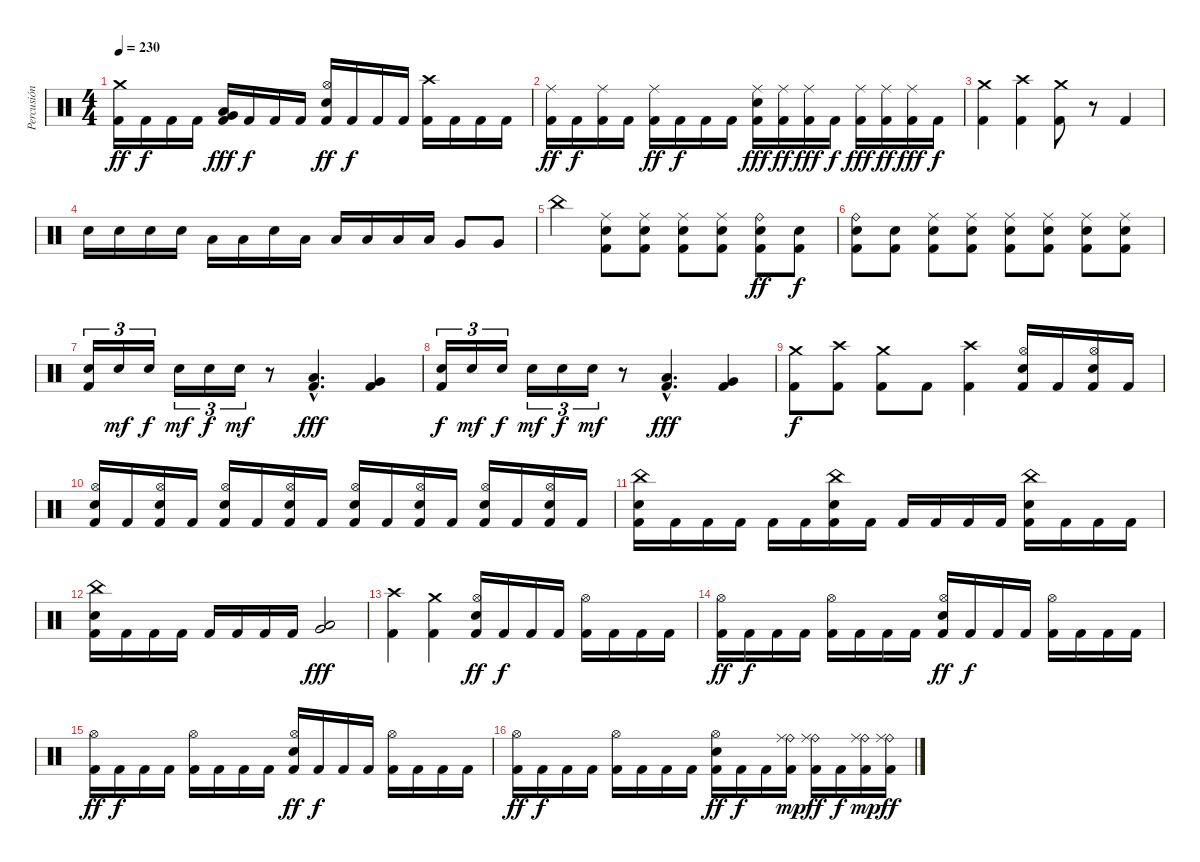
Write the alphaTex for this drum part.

\track ("Percusión" "Percusión") {instrument percussion}
\staff {score}
\articulation defaults
\ts (4 4)
\tempo 230
\clef neutral
\ks c
("Crash medium (hit)" "Kick (hit) 2").16{dy ff} "Kick (hit) 2".16{dy f} "Kick (hit) 2".16 "Kick (hit) 2".16 ("Kick (hit) 2" "Very Low Tom (hit)" "Low Floor Tom (hit)").16{dy fff} "Kick (hit) 2".16{dy f} "Kick (hit) 2".16 "Kick (hit) 2".16 ("Hi-Hat (open)" "Kick (hit) 2" "Snare (hit) 2").16{dy ff} "Kick (hit) 2".16{dy f} "Kick (hit) 2".16 "Kick (hit) 2".16 ("Crash high (hit)" "Kick (hit) 2").16 "Kick (hit) 2".16 "Kick (hit) 2".16 "Kick (hit) 2".16 |
("Ride (middle)" "Kick (hit) 2").16{dy ff} "Kick (hit) 2".16{dy f} ("Ride (middle)" "Kick (hit) 2").16 "Kick (hit) 2".16 ("Ride (middle)" "Kick (hit) 2").16{dy ff} "Kick (hit) 2".16{dy f} "Kick (hit) 2".16 "Kick (hit) 2".16 ("Ride (middle)" "Kick (hit) 2" "Snare (hit) 2").16{dy fff} ("Ride (middle)" "Kick (hit) 2").16{dy ff} ("Ride (middle)" "Kick (hit) 2").16{dy fff} "Kick (hit) 2".16{dy f} ("Ride (middle)" "Kick (hit) 2").16{dy fff} ("Ride (middle)" "Kick (hit) 2").16{dy ff} ("Ride (middle)" "Kick (hit) 2").16{dy fff} "Kick (hit) 2".16{dy f} |
("Crash medium (hit)" "Kick (hit) 2").4 ("Crash high (hit)" "Kick (hit) 2").4 ("Crash medium (hit)" "Kick (hit) 2").8 r.8 "Kick (hit) 2".4 |
"Snare (hit) 2".16 "Snare (hit) 2".16 "Snare (hit) 2".16 "Snare (hit) 2".16 "Low Tom (hit)".16 "Low Tom (hit)".16 "Snare (hit) 2".16 "Low Tom (hit)".16 "Low Tom (hit)".16 "Low Tom (hit)".16 "Low Tom (hit)".16 "Low Tom (hit)".16 "Very Low Tom (hit)".8 "Very Low Tom (hit)".8 |
"China (hit)".4 ("Ride (middle)" "Kick (hit) 2" "Snare (hit) 2").8 ("Ride (middle)" "Kick (hit) 2" "Snare (hit) 2").8 ("Ride (middle)" "Kick (hit) 2" "Snare (hit) 2").8 ("Ride (middle)" "Kick (hit) 2" "Snare (hit) 2").8 ("Ride (bell)" "Kick (hit) 2" "Snare (hit) 2").8{dy ff} ("Kick (hit) 2" "Snare (hit) 2").8{dy f} |
("Ride (bell)" "Kick (hit) 2" "Snare (hit) 2").8 ("Kick (hit) 2" "Snare (hit) 2").8 ("Ride (middle)" "Kick (hit) 2" "Snare (hit) 2").8 ("Ride (middle)" "Kick (hit) 2" "Snare (hit) 2").8 ("Ride (middle)" "Kick (hit) 2" "Snare (hit) 2").8 ("Ride (middle)" "Kick (hit) 2" "Snare (hit) 2").8 ("Ride (middle)" "Kick (hit) 2" "Snare (hit) 2").8 ("Ride (middle)" "Kick (hit) 2" "Snare (hit) 2").8 |
("Kick (hit) 2" "Snare (hit) 2").16{tu (3 2)} "Snare (hit) 2".16{tu (3 2) dy mf} "Snare (hit) 2".16{tu (3 2) dy f} "Snare (hit) 2".16{tu (3 2) dy mf} "Snare (hit) 2".16{tu (3 2) dy f} "Snare (hit) 2".16{tu (3 2) dy mf} r.8 ("Kick (hit) 2"{hac} "Low Tom (hit)"{hac}).4{d dy fff} ("Kick (hit) 2" "Very Low Tom (hit)").4 |
("Kick (hit) 2" "Snare (hit) 2").16{tu (3 2) dy f} "Snare (hit) 2".16{tu (3 2) dy mf} "Snare (hit) 2".16{tu (3 2) dy f} "Snare (hit) 2".16{tu (3 2) dy mf} "Snare (hit) 2".16{tu (3 2) dy f} "Snare (hit) 2".16{tu (3 2) dy mf} r.8 ("Kick (hit) 2"{hac} "Low Tom (hit)"{hac}).4{d dy fff} ("Kick (hit) 2" "Very Low Tom (hit)").4 |
("Crash medium (hit)" "Kick (hit) 2").8{dy f} ("Crash high (hit)" "Kick (hit) 2").8 ("Crash medium (hit)" "Kick (hit) 2").8 "Kick (hit) 2".8 ("Crash high (hit)" "Kick (hit) 2").4 ("Hi-Hat (open)" "Kick (hit) 2" "Snare (hit) 2").16 "Kick (hit) 2".16 ("Hi-Hat (open)" "Kick (hit) 2" "Snare (hit) 2").16 "Kick (hit) 2".16 |
("Hi-Hat (open)" "Kick (hit) 2" "Snare (hit) 2").16 "Kick (hit) 2".16 ("Hi-Hat (open)" "Kick (hit) 2" "Snare (hit) 2").16 "Kick (hit) 2".16 ("Hi-Hat (open)" "Kick (hit) 2" "Snare (hit) 2").16 "Kick (hit) 2".16 ("Hi-Hat (open)" "Kick (hit) 2" "Snare (hit) 2").16 "Kick (hit) 2".16 ("Hi-Hat (open)" "Kick (hit) 2" "Snare (hit) 2").16 "Kick (hit) 2".16 ("Hi-Hat (open)" "Kick (hit) 2" "Snare (hit) 2").16 "Kick (hit) 2".16 ("Hi-Hat (open)" "Kick (hit) 2" "Snare (hit) 2").16 "Kick (hit) 2".16 ("Hi-Hat (open)" "Kick (hit) 2" "Snare (hit) 2").16 "Kick (hit) 2".16 |
("China (hit)" "Kick (hit) 2" "Snare (hit) 2").16 "Kick (hit) 2".16 "Kick (hit) 2".16 "Kick (hit) 2".16 "Kick (hit) 2".16 "Kick (hit) 2".16 ("China (hit)" "Kick (hit) 2" "Snare (hit) 2").16 "Kick (hit) 2".16 "Kick (hit) 2".16 "Kick (hit) 2".16 "Kick (hit) 2".16 "Kick (hit) 2".16 ("China (hit)" "Kick (hit) 2" "Snare (hit) 2").16 "Kick (hit) 2".16 "Kick (hit) 2".16 "Kick (hit) 2".16 |
("China (hit)" "Kick (hit) 2" "Snare (hit) 2").16 "Kick (hit) 2".16 "Kick (hit) 2".16 "Kick (hit) 2".16 "Kick (hit) 2".16 "Kick (hit) 2".16 "Kick (hit) 2".16 "Kick (hit) 2".16 ("Very Low Tom (hit)" "Low Floor Tom (hit)").2{dy fff} |
("Crash high (hit)" "Kick (hit) 2").4 ("Crash medium (hit)" "Kick (hit) 2").4 ("Hi-Hat (open)" "Kick (hit) 2" "Snare (hit) 2").16{dy ff} "Kick (hit) 2".16{dy f} "Kick (hit) 2".16 "Kick (hit) 2".16 ("Hi-Hat (open)" "Kick (hit) 2").16 "Kick (hit) 2".16 "Kick (hit) 2".16 "Kick (hit) 2".16 |
("Hi-Hat (open)" "Kick (hit) 2").16{dy ff} "Kick (hit) 2".16{dy f} "Kick (hit) 2".16 "Kick (hit) 2".16 ("Hi-Hat (open)" "Kick (hit) 2").16 "Kick (hit) 2".16 "Kick (hit) 2".16 "Kick (hit) 2".16 ("Hi-Hat (open)" "Kick (hit) 2" "Snare (hit) 2").16{dy ff} "Kick (hit) 2".16{dy f} "Kick (hit) 2".16 "Kick (hit) 2".16 ("Hi-Hat (open)" "Kick (hit) 2").16 "Kick (hit) 2".16 "Kick (hit) 2".16 "Kick (hit) 2".16 |
("Hi-Hat (open)" "Kick (hit) 2").16{dy ff} "Kick (hit) 2".16{dy f} "Kick (hit) 2".16 "Kick (hit) 2".16 ("Hi-Hat (open)" "Kick (hit) 2").16 "Kick (hit) 2".16 "Kick (hit) 2".16 "Kick (hit) 2".16 ("Hi-Hat (open)" "Kick (hit) 2" "Snare (hit) 2").16{dy ff} "Kick (hit) 2".16{dy f} "Kick (hit) 2".16 "Kick (hit) 2".16 ("Hi-Hat (open)" "Kick (hit) 2").16 "Kick (hit) 2".16 "Kick (hit) 2".16 "Kick (hit) 2".16 |
("Hi-Hat (open)" "Kick (hit) 2").16{dy ff} "Kick (hit) 2".16{dy f} "Kick (hit) 2".16 "Kick (hit) 2".16 ("Hi-Hat (open)" "Kick (hit) 2").16 "Kick (hit) 2".16 "Kick (hit) 2".16 "Kick (hit) 2".16 ("Hi-Hat (open)" "Kick (hit) 2" "Snare (hit) 2").16{dy ff} "Kick (hit) 2".16{dy f} "Kick (hit) 2".16 ("Ride (bell)" "Ride (middle)" "Kick (hit) 2").16{dy mp} ("Ride (bell)" "Ride (middle)" "Kick (hit) 2").16{dy ff} "Kick (hit) 2".16{dy f} ("Ride (bell)" "Ride (middle)" "Kick (hit) 2").16{dy mp} ("Ride (bell)" "Ride (middle)" "Kick (hit) 2").16{dy ff}
